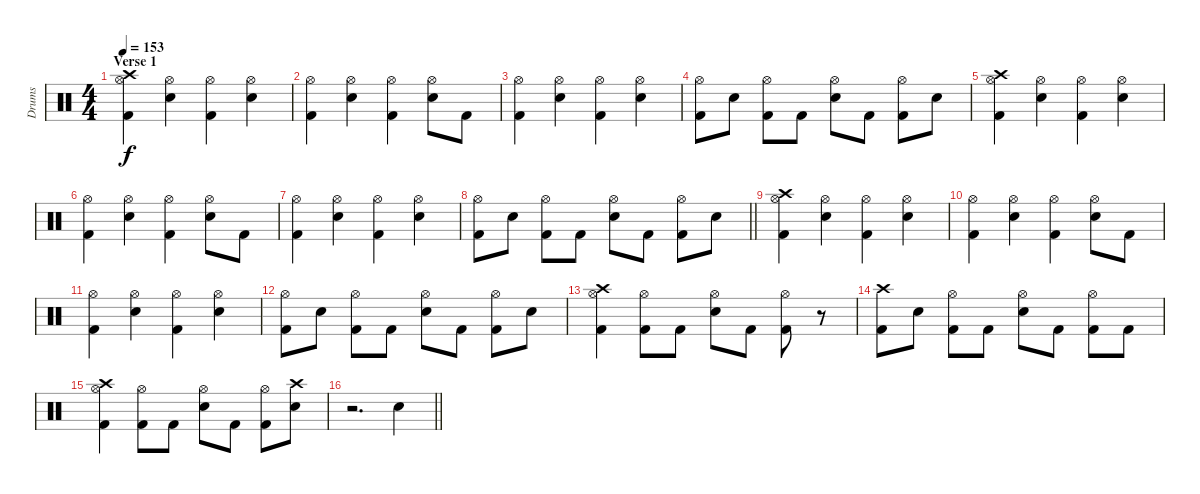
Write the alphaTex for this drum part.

\track ("Drums" "Drums") {instrument percussion}
\staff {score}
\articulation defaults
\ts (4 4)
\section ("" "Verse 1")
\tempo 153
\clef neutral
\ks c
("Crash high (hit)" "Hi-Hat (open)" "Kick (hit) 2").4{dy f} ("Hi-Hat (open)" "Electric Snare (hit)").4 ("Hi-Hat (open)" "Kick (hit) 2").4 ("Hi-Hat (open)" "Electric Snare (hit)").4 |
("Hi-Hat (open)" "Kick (hit) 2").4 ("Hi-Hat (open)" "Electric Snare (hit)").4 ("Hi-Hat (open)" "Kick (hit) 2").4 ("Hi-Hat (open)" "Electric Snare (hit)").8 "Kick (hit) 2".8 |
("Hi-Hat (open)" "Kick (hit) 2").4 ("Hi-Hat (open)" "Electric Snare (hit)").4 ("Hi-Hat (open)" "Kick (hit) 2").4 ("Hi-Hat (open)" "Electric Snare (hit)").4 |
("Hi-Hat (open)" "Kick (hit) 2").8 "Electric Snare (hit)".8 ("Hi-Hat (open)" "Kick (hit) 2").8 "Kick (hit) 2".8 ("Hi-Hat (open)" "Electric Snare (hit)").8 "Kick (hit) 2".8 ("Hi-Hat (open)" "Kick (hit) 2").8 "Electric Snare (hit)".8 |
("Crash high (hit)" "Hi-Hat (open)" "Kick (hit) 2").4 ("Hi-Hat (open)" "Electric Snare (hit)").4 ("Hi-Hat (open)" "Kick (hit) 2").4 ("Hi-Hat (open)" "Electric Snare (hit)").4 |
("Hi-Hat (open)" "Kick (hit) 2").4 ("Hi-Hat (open)" "Electric Snare (hit)").4 ("Hi-Hat (open)" "Kick (hit) 2").4 ("Hi-Hat (open)" "Electric Snare (hit)").8 "Kick (hit) 2".8 |
("Hi-Hat (open)" "Kick (hit) 2").4 ("Hi-Hat (open)" "Electric Snare (hit)").4 ("Hi-Hat (open)" "Kick (hit) 2").4 ("Hi-Hat (open)" "Electric Snare (hit)").4 |
\barLineRight lightlight
("Hi-Hat (open)" "Kick (hit) 2").8 "Electric Snare (hit)".8 ("Hi-Hat (open)" "Kick (hit) 2").8 "Kick (hit) 2".8 ("Hi-Hat (open)" "Electric Snare (hit)").8 "Kick (hit) 2".8 ("Hi-Hat (open)" "Kick (hit) 2").8 "Electric Snare (hit)".8 |
("Crash high (hit)" "Hi-Hat (open)" "Kick (hit) 2").4 ("Hi-Hat (open)" "Electric Snare (hit)").4 ("Hi-Hat (open)" "Kick (hit) 2").4 ("Hi-Hat (open)" "Electric Snare (hit)").4 |
("Hi-Hat (open)" "Kick (hit) 2").4 ("Hi-Hat (open)" "Electric Snare (hit)").4 ("Hi-Hat (open)" "Kick (hit) 2").4 ("Hi-Hat (open)" "Electric Snare (hit)").8 "Kick (hit) 2".8 |
("Hi-Hat (open)" "Kick (hit) 2").4 ("Hi-Hat (open)" "Electric Snare (hit)").4 ("Hi-Hat (open)" "Kick (hit) 2").4 ("Hi-Hat (open)" "Electric Snare (hit)").4 |
("Hi-Hat (open)" "Kick (hit) 2").8 "Electric Snare (hit)".8 ("Hi-Hat (open)" "Kick (hit) 2").8 "Kick (hit) 2".8 ("Hi-Hat (open)" "Electric Snare (hit)").8 "Kick (hit) 2".8 ("Hi-Hat (open)" "Kick (hit) 2").8 "Electric Snare (hit)".8 |
("Crash high (hit)" "Hi-Hat (open)" "Kick (hit) 2").4 ("Hi-Hat (open)" "Kick (hit) 2").8 "Kick (hit) 2".8 ("Hi-Hat (open)" "Electric Snare (hit)").8 "Kick (hit) 2".8 ("Hi-Hat (open)" "Kick (hit) 2").8 r.8 |
("Crash high (hit)" "Kick (hit) 2").8 "Electric Snare (hit)".8 ("Hi-Hat (open)" "Kick (hit) 2").8 "Kick (hit) 2".8 ("Hi-Hat (open)" "Electric Snare (hit)").8 "Kick (hit) 2".8 ("Hi-Hat (open)" "Kick (hit) 2").8 "Kick (hit) 2".8 |
("Crash high (hit)" "Hi-Hat (open)" "Kick (hit) 2").4 ("Hi-Hat (open)" "Kick (hit) 2").8 "Kick (hit) 2".8 ("Hi-Hat (open)" "Electric Snare (hit)").8 "Kick (hit) 2".8 ("Hi-Hat (open)" "Kick (hit) 2").8 ("Crash high (hit)" "Electric Snare (hit)").8 |
\barLineRight lightlight
r.2{d} "Electric Snare (hit)".4
